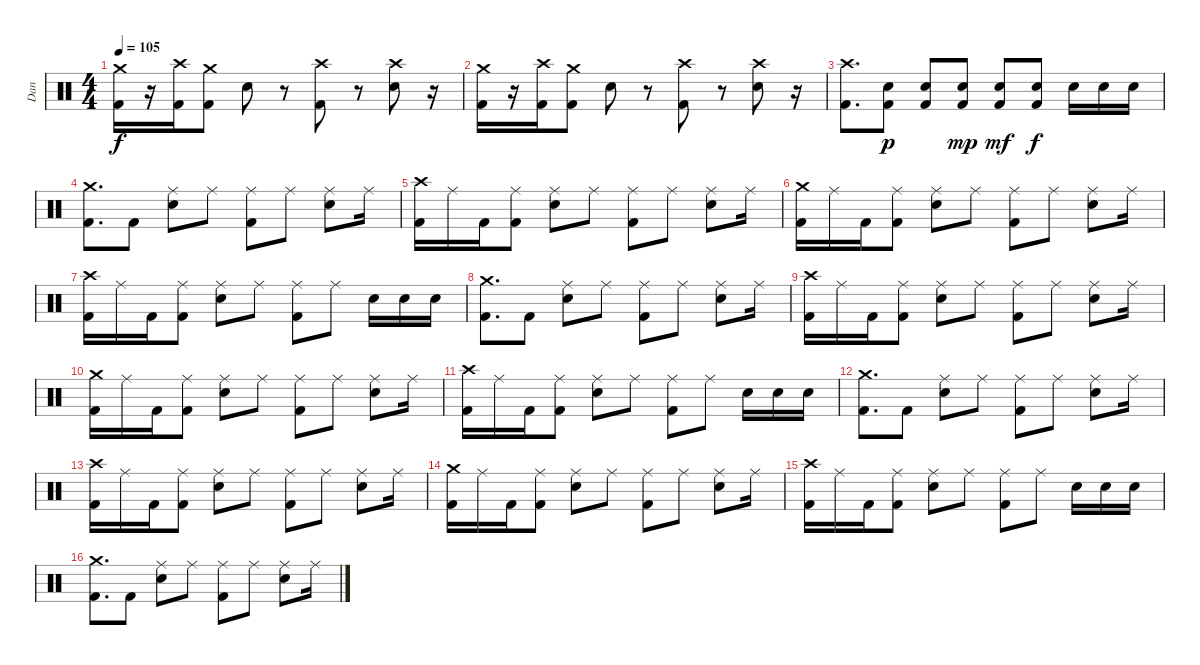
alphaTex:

\track ("Dan" "Dan") {instrument percussion}
\staff {score}
\articulation defaults
\ts (4 4)
\tempo 105
\clef neutral
\ks c
("Crash medium (hit)" "Kick (hit) 2").16{dy f} r.16 ("Crash high (hit)" "Kick (hit) 2").16 ("Crash medium (hit)" "Kick (hit) 2").8 "Snare (hit) 2".8 r.8 ("Crash high (hit)" "Kick (hit) 2").8 r.8 ("Crash high (hit)" "Snare (hit) 2").8 r.16 |
("Crash medium (hit)" "Kick (hit) 2").16 r.16 ("Crash high (hit)" "Kick (hit) 2").16 ("Crash medium (hit)" "Kick (hit) 2").8 "Snare (hit) 2".8 r.8 ("Crash high (hit)" "Kick (hit) 2").8 r.8 ("Crash high (hit)" "Snare (hit) 2").8 r.16 |
("Crash high (hit)" "Kick (hit) 2").8{d} ("Snare (hit) 2" "Kick (hit) 2").8{dy p} ("Snare (hit) 2" "Kick (hit) 2").8 ("Snare (hit) 2" "Kick (hit) 2").8{dy mp} ("Snare (hit) 2" "Kick (hit) 2").8{dy mf} ("Snare (hit) 2" "Kick (hit) 2").8{dy f} "Snare (hit) 2".16 "Snare (hit) 2".16 "Snare (hit) 2".16 |
("Crash medium (hit)" "Kick (hit) 2").8{d} "Kick (hit) 2".8 ("Ride (middle)" "Snare (hit) 2").8 "Ride (middle)".8 ("Ride (middle)" "Kick (hit) 2").8 "Ride (middle)".8 ("Ride (middle)" "Snare (hit) 2").8 "Ride (middle)".16 |
("Crash high (hit)" "Kick (hit) 2").16 "Ride (middle)".16 "Kick (hit) 2".16 ("Ride (middle)" "Kick (hit) 2").8 ("Ride (middle)" "Snare (hit) 2").8 "Ride (middle)".8 ("Ride (middle)" "Kick (hit) 2").8 "Ride (middle)".8 ("Ride (middle)" "Snare (hit) 2").8 "Ride (middle)".16 |
("Crash medium (hit)" "Kick (hit) 2").16 "Ride (middle)".16 "Kick (hit) 2".16 ("Ride (middle)" "Kick (hit) 2").8 ("Ride (middle)" "Snare (hit) 2").8 "Ride (middle)".8 ("Ride (middle)" "Kick (hit) 2").8 "Ride (middle)".8 ("Ride (middle)" "Snare (hit) 2").8 "Ride (middle)".16 |
("Crash high (hit)" "Kick (hit) 2").16 "Ride (middle)".16 "Kick (hit) 2".16 ("Ride (middle)" "Kick (hit) 2").8 ("Ride (middle)" "Snare (hit) 2").8 "Ride (middle)".8 ("Ride (middle)" "Kick (hit) 2").8 "Ride (middle)".8 "Snare (hit) 2".16 "Snare (hit) 2".16 "Snare (hit) 2".16 |
("Crash medium (hit)" "Kick (hit) 2").8{d} "Kick (hit) 2".8 ("Ride (middle)" "Snare (hit) 2").8 "Ride (middle)".8 ("Ride (middle)" "Kick (hit) 2").8 "Ride (middle)".8 ("Ride (middle)" "Snare (hit) 2").8 "Ride (middle)".16 |
("Crash high (hit)" "Kick (hit) 2").16 "Ride (middle)".16 "Kick (hit) 2".16 ("Ride (middle)" "Kick (hit) 2").8 ("Ride (middle)" "Snare (hit) 2").8 "Ride (middle)".8 ("Ride (middle)" "Kick (hit) 2").8 "Ride (middle)".8 ("Ride (middle)" "Snare (hit) 2").8 "Ride (middle)".16 |
("Crash medium (hit)" "Kick (hit) 2").16 "Ride (middle)".16 "Kick (hit) 2".16 ("Ride (middle)" "Kick (hit) 2").8 ("Ride (middle)" "Snare (hit) 2").8 "Ride (middle)".8 ("Ride (middle)" "Kick (hit) 2").8 "Ride (middle)".8 ("Ride (middle)" "Snare (hit) 2").8 "Ride (middle)".16 |
("Crash high (hit)" "Kick (hit) 2").16 "Ride (middle)".16 "Kick (hit) 2".16 ("Ride (middle)" "Kick (hit) 2").8 ("Ride (middle)" "Snare (hit) 2").8 "Ride (middle)".8 ("Ride (middle)" "Kick (hit) 2").8 "Ride (middle)".8 "Snare (hit) 2".16 "Snare (hit) 2".16 "Snare (hit) 2".16 |
("Crash medium (hit)" "Kick (hit) 2").8{d} "Kick (hit) 2".8 ("Ride (middle)" "Snare (hit) 2").8 "Ride (middle)".8 ("Ride (middle)" "Kick (hit) 2").8 "Ride (middle)".8 ("Ride (middle)" "Snare (hit) 2").8 "Ride (middle)".16 |
("Crash high (hit)" "Kick (hit) 2").16 "Ride (middle)".16 "Kick (hit) 2".16 ("Ride (middle)" "Kick (hit) 2").8 ("Ride (middle)" "Snare (hit) 2").8 "Ride (middle)".8 ("Ride (middle)" "Kick (hit) 2").8 "Ride (middle)".8 ("Ride (middle)" "Snare (hit) 2").8 "Ride (middle)".16 |
("Crash medium (hit)" "Kick (hit) 2").16 "Ride (middle)".16 "Kick (hit) 2".16 ("Ride (middle)" "Kick (hit) 2").8 ("Ride (middle)" "Snare (hit) 2").8 "Ride (middle)".8 ("Ride (middle)" "Kick (hit) 2").8 "Ride (middle)".8 ("Ride (middle)" "Snare (hit) 2").8 "Ride (middle)".16 |
("Crash high (hit)" "Kick (hit) 2").16 "Ride (middle)".16 "Kick (hit) 2".16 ("Ride (middle)" "Kick (hit) 2").8 ("Ride (middle)" "Snare (hit) 2").8 "Ride (middle)".8 ("Ride (middle)" "Kick (hit) 2").8 "Ride (middle)".8 "Snare (hit) 2".16 "Snare (hit) 2".16 "Snare (hit) 2".16 |
("Crash medium (hit)" "Kick (hit) 2").8{d} "Kick (hit) 2".8 ("Ride (middle)" "Snare (hit) 2").8 "Ride (middle)".8 ("Ride (middle)" "Kick (hit) 2").8 "Ride (middle)".8 ("Ride (middle)" "Snare (hit) 2").8 "Ride (middle)".16
